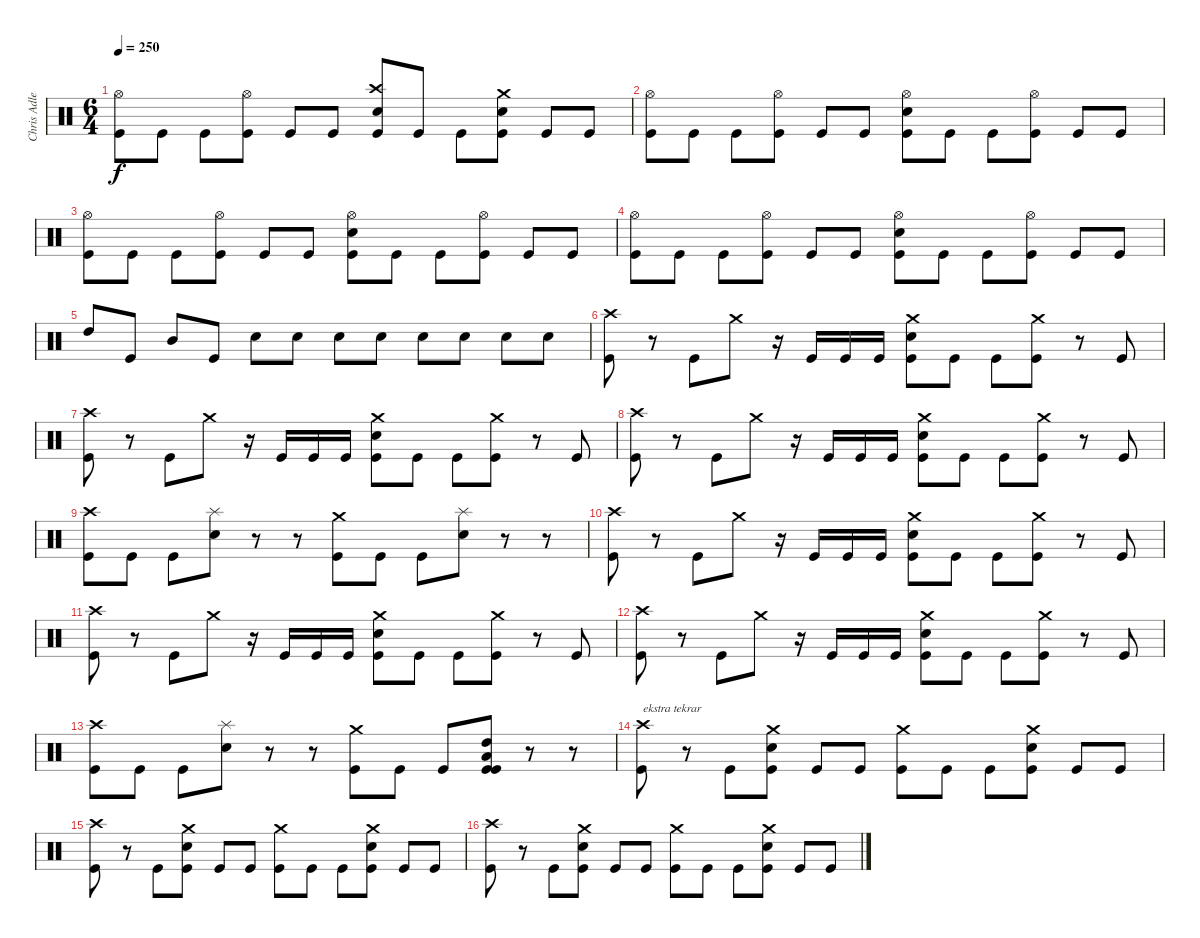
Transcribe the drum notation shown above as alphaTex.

\track ("Chris Adler" "Chris Adle") {instrument percussion}
\staff {score}
\articulation defaults
\ts (6 4)
\tempo 250
\clef neutral
\ks c
("Hi-Hat (open)" "Kick (hit)").8{dy f} "Kick (hit)".8 "Kick (hit)".8 ("Hi-Hat (open)" "Kick (hit)").8 "Kick (hit)".8 "Kick (hit)".8 ("Crash high (hit)" "Electric Snare (hit)" "Kick (hit)").8 "Kick (hit)".8 "Kick (hit)".8 ("Crash medium (hit)" "Electric Snare (hit)" "Kick (hit)").8 "Kick (hit)".8 "Kick (hit)".8 |
("Hi-Hat (open)" "Kick (hit)").8 "Kick (hit)".8 "Kick (hit)".8 ("Hi-Hat (open)" "Kick (hit)").8 "Kick (hit)".8 "Kick (hit)".8 ("Hi-Hat (open)" "Electric Snare (hit)" "Kick (hit)").8 "Kick (hit)".8 "Kick (hit)".8 ("Hi-Hat (open)" "Kick (hit)").8 "Kick (hit)".8 "Kick (hit)".8 |
("Hi-Hat (open)" "Kick (hit)").8 "Kick (hit)".8 "Kick (hit)".8 ("Hi-Hat (open)" "Kick (hit)").8 "Kick (hit)".8 "Kick (hit)".8 ("Hi-Hat (open)" "Electric Snare (hit)" "Kick (hit)").8 "Kick (hit)".8 "Kick (hit)".8 ("Hi-Hat (open)" "Kick (hit)").8 "Kick (hit)".8 "Kick (hit)".8 |
("Hi-Hat (open)" "Kick (hit)").8 "Kick (hit)".8 "Kick (hit)".8 ("Hi-Hat (open)" "Kick (hit)").8 "Kick (hit)".8 "Kick (hit)".8 ("Hi-Hat (open)" "Electric Snare (hit)" "Kick (hit)").8 "Kick (hit)".8 "Kick (hit)".8 ("Hi-Hat (open)" "Kick (hit)").8 "Kick (hit)".8 "Kick (hit)".8 |
"High Tom (hit)".8 "Kick (hit)".8 "Mid Tom (hit)".8 "Kick (hit)".8 "Electric Snare (hit)".8 "Electric Snare (hit)".8 "Electric Snare (hit)".8 "Electric Snare (hit)".8 "Electric Snare (hit)".8 "Electric Snare (hit)".8 "Electric Snare (hit)".8 "Electric Snare (hit)".8 |
("Crash high (hit)" "Kick (hit)").8 r.8 "Kick (hit)".8 "Crash medium (hit)".8 r.16 "Kick (hit)".16 "Kick (hit)".16 "Kick (hit)".16 ("Crash medium (hit)" "Electric Snare (hit)" "Kick (hit)").8 "Kick (hit)".8 "Kick (hit)".8 ("Crash medium (hit)" "Kick (hit)").8 r.8 "Kick (hit)".8 |
("Crash high (hit)" "Kick (hit)").8 r.8 "Kick (hit)".8 "Crash medium (hit)".8 r.16 "Kick (hit)".16 "Kick (hit)".16 "Kick (hit)".16 ("Crash medium (hit)" "Electric Snare (hit)" "Kick (hit)").8 "Kick (hit)".8 "Kick (hit)".8 ("Crash medium (hit)" "Kick (hit)").8 r.8 "Kick (hit)".8 |
("Crash high (hit)" "Kick (hit)").8 r.8 "Kick (hit)".8 "Crash medium (hit)".8 r.16 "Kick (hit)".16 "Kick (hit)".16 "Kick (hit)".16 ("Crash medium (hit)" "Electric Snare (hit)" "Kick (hit)").8 "Kick (hit)".8 "Kick (hit)".8 ("Crash medium (hit)" "Kick (hit)").8 r.8 "Kick (hit)".8 |
("Crash high (hit)" "Kick (hit)").8 "Kick (hit)".8 "Kick (hit)".8 ("Splash (hit)" "Electric Snare (hit)").8 r.8 r.8 ("Crash medium (hit)" "Kick (hit)").8 "Kick (hit)".8 "Kick (hit)".8 ("Splash (hit)" "Electric Snare (hit)").8 r.8 r.8 |
("Crash high (hit)" "Kick (hit)").8 r.8 "Kick (hit)".8 "Crash medium (hit)".8 r.16 "Kick (hit)".16 "Kick (hit)".16 "Kick (hit)".16 ("Crash medium (hit)" "Electric Snare (hit)" "Kick (hit)").8 "Kick (hit)".8 "Kick (hit)".8 ("Crash medium (hit)" "Kick (hit)").8 r.8 "Kick (hit)".8 |
("Crash high (hit)" "Kick (hit)").8 r.8 "Kick (hit)".8 "Crash medium (hit)".8 r.16 "Kick (hit)".16 "Kick (hit)".16 "Kick (hit)".16 ("Crash medium (hit)" "Electric Snare (hit)" "Kick (hit)").8 "Kick (hit)".8 "Kick (hit)".8 ("Crash medium (hit)" "Kick (hit)").8 r.8 "Kick (hit)".8 |
("Crash high (hit)" "Kick (hit)").8 r.8 "Kick (hit)".8 "Crash medium (hit)".8 r.16 "Kick (hit)".16 "Kick (hit)".16 "Kick (hit)".16 ("Crash medium (hit)" "Electric Snare (hit)" "Kick (hit)").8 "Kick (hit)".8 "Kick (hit)".8 ("Crash medium (hit)" "Kick (hit)").8 r.8 "Kick (hit)".8 |
("Crash high (hit)" "Kick (hit)").8 "Kick (hit)".8 "Kick (hit)".8 ("Splash (hit)" "Electric Snare (hit)").8 r.8 r.8 ("Crash medium (hit)" "Kick (hit)").8 "Kick (hit)".8 "Kick (hit)".8 ("High Tom (hit)" "Low Tom (hit)" "Kick (hit)" "Kick (hit)").8 r.8 r.8 |
("Crash high (hit)" "Kick (hit)").8{txt "ekstra tekrar"} r.8 "Kick (hit)".8 ("Crash medium (hit)" "Electric Snare (hit)" "Kick (hit)").8 "Kick (hit)".8 "Kick (hit)".8 ("Crash medium (hit)" "Kick (hit)").8 "Kick (hit)".8 "Kick (hit)".8 ("Crash medium (hit)" "Electric Snare (hit)" "Kick (hit)").8 "Kick (hit)".8 "Kick (hit)".8 |
("Crash high (hit)" "Kick (hit)").8 r.8 "Kick (hit)".8 ("Crash medium (hit)" "Electric Snare (hit)" "Kick (hit)").8 "Kick (hit)".8 "Kick (hit)".8 ("Crash medium (hit)" "Kick (hit)").8 "Kick (hit)".8 "Kick (hit)".8 ("Crash medium (hit)" "Electric Snare (hit)" "Kick (hit)").8 "Kick (hit)".8 "Kick (hit)".8 |
("Crash high (hit)" "Kick (hit)").8 r.8 "Kick (hit)".8 ("Crash medium (hit)" "Electric Snare (hit)" "Kick (hit)").8 "Kick (hit)".8 "Kick (hit)".8 ("Crash medium (hit)" "Kick (hit)").8 "Kick (hit)".8 "Kick (hit)".8 ("Crash medium (hit)" "Electric Snare (hit)" "Kick (hit)").8 "Kick (hit)".8 "Kick (hit)".8
